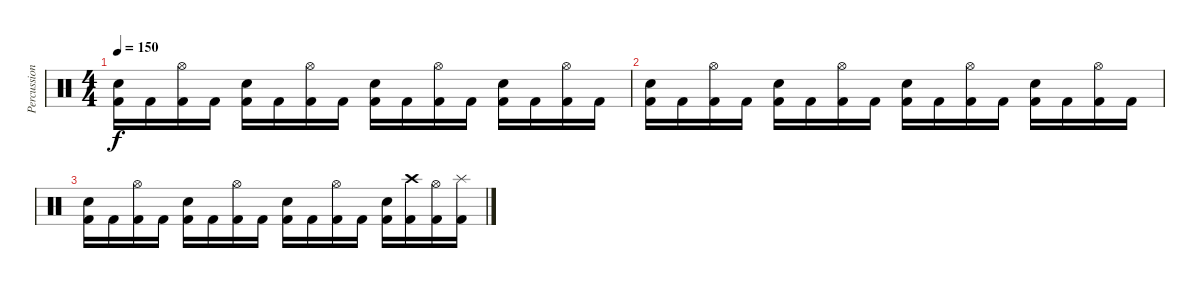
\track ("Percussions" "Percussion") {instrument percussion}
\staff {score}
\articulation defaults
\ts (4 4)
\tempo 150
\clef neutral
\ks c
("Electric Snare (hit)" "Kick (hit) 2").16{dy f} "Kick (hit) 2".16 ("Hi-Hat (open)" "Kick (hit) 2").16 "Kick (hit) 2".16 ("Electric Snare (hit)" "Kick (hit) 2").16 "Kick (hit) 2".16 ("Hi-Hat (open)" "Kick (hit) 2").16 "Kick (hit) 2".16 ("Electric Snare (hit)" "Kick (hit) 2").16 "Kick (hit) 2".16 ("Hi-Hat (open)" "Kick (hit) 2").16 "Kick (hit) 2".16 ("Electric Snare (hit)" "Kick (hit) 2").16 "Kick (hit) 2".16 ("Hi-Hat (open)" "Kick (hit) 2").16 "Kick (hit) 2".16 |
("Electric Snare (hit)" "Kick (hit) 2").16 "Kick (hit) 2".16 ("Hi-Hat (open)" "Kick (hit) 2").16 "Kick (hit) 2".16 ("Electric Snare (hit)" "Kick (hit) 2").16 "Kick (hit) 2".16 ("Hi-Hat (open)" "Kick (hit) 2").16 "Kick (hit) 2".16 ("Electric Snare (hit)" "Kick (hit) 2").16 "Kick (hit) 2".16 ("Hi-Hat (open)" "Kick (hit) 2").16 "Kick (hit) 2".16 ("Electric Snare (hit)" "Kick (hit) 2").16 "Kick (hit) 2".16 ("Hi-Hat (open)" "Kick (hit) 2").16 "Kick (hit) 2".16 |
("Electric Snare (hit)" "Kick (hit) 2").16 "Kick (hit) 2".16 ("Hi-Hat (open)" "Kick (hit) 2").16 "Kick (hit) 2".16 ("Electric Snare (hit)" "Kick (hit) 2").16 "Kick (hit) 2".16 ("Hi-Hat (open)" "Kick (hit) 2").16 "Kick (hit) 2".16 ("Electric Snare (hit)" "Kick (hit) 2").16 "Kick (hit) 2".16 ("Hi-Hat (open)" "Kick (hit) 2").16 "Kick (hit) 2".16 ("Electric Snare (hit)" "Kick (hit) 2").16 ("Crash high (hit)" "Kick (hit) 2").16 ("Hi-Hat (open)" "Kick (hit) 2").16 ("Splash (hit)" "Kick (hit) 2").16
